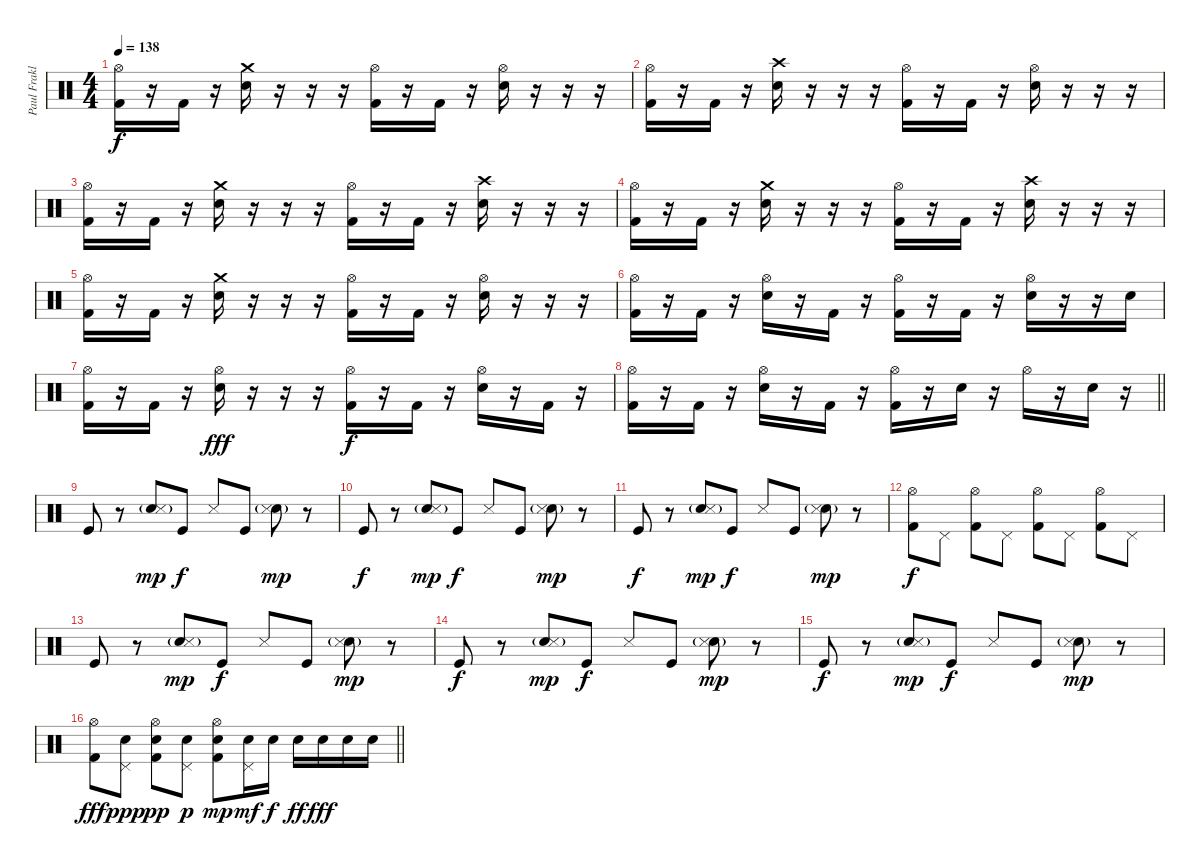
\track ("Paul Fraklin Percusion" "Paul Frakl") {instrument percussion}
\staff {score}
\articulation defaults
\ts (4 4)
\tempo 138
\clef neutral
\ks c
("Hi-Hat (open)" "Kick (hit) 2").16{dy f} r.16 "Kick (hit) 2".16 r.16 ("Crash medium (hit)" "Electric Snare (hit)").16 r.16 r.16 r.16 ("Hi-Hat (open)" "Kick (hit) 2").16 r.16 "Kick (hit) 2".16 r.16 ("Hi-Hat (open)" "Electric Snare (hit)").16 r.16 r.16 r.16 |
("Hi-Hat (open)" "Kick (hit) 2").16 r.16 "Kick (hit) 2".16 r.16 ("Crash high (hit)" "Electric Snare (hit)").16 r.16 r.16 r.16 ("Hi-Hat (open)" "Kick (hit) 2").16 r.16 "Kick (hit) 2".16 r.16 ("Hi-Hat (open)" "Electric Snare (hit)").16 r.16 r.16 r.16 |
("Hi-Hat (open)" "Kick (hit) 2").16 r.16 "Kick (hit) 2".16 r.16 ("Crash medium (hit)" "Electric Snare (hit)").16 r.16 r.16 r.16 ("Hi-Hat (open)" "Kick (hit) 2").16 r.16 "Kick (hit) 2".16 r.16 ("Crash high (hit)" "Electric Snare (hit)").16 r.16 r.16 r.16 |
("Hi-Hat (open)" "Kick (hit) 2").16 r.16 "Kick (hit) 2".16 r.16 ("Crash medium (hit)" "Electric Snare (hit)").16 r.16 r.16 r.16 ("Hi-Hat (open)" "Kick (hit) 2").16 r.16 "Kick (hit) 2".16 r.16 ("Crash high (hit)" "Electric Snare (hit)").16 r.16 r.16 r.16 |
("Hi-Hat (open)" "Kick (hit) 2").16 r.16 "Kick (hit) 2".16 r.16 ("Crash medium (hit)" "Electric Snare (hit)").16 r.16 r.16 r.16 ("Hi-Hat (open)" "Kick (hit) 2").16 r.16 "Kick (hit) 2".16 r.16 ("Hi-Hat (open)" "Electric Snare (hit)").16 r.16 r.16 r.16 |
("Hi-Hat (open)" "Kick (hit) 2").16 r.16 "Kick (hit) 2".16 r.16 ("Hi-Hat (open)" "Electric Snare (hit)").16 r.16 "Kick (hit) 2".16 r.16 ("Hi-Hat (open)" "Kick (hit) 2").16 r.16 "Kick (hit) 2".16 r.16 ("Hi-Hat (open)" "Electric Snare (hit)").16 r.16 r.16 "Electric Snare (hit)".16 |
("Hi-Hat (open)" "Kick (hit) 2").16 r.16 "Kick (hit) 2".16 r.16 ("Hi-Hat (open)" "Electric Snare (hit)").16{dy fff} r.16 r.16 r.16 ("Hi-Hat (open)" "Kick (hit) 2").16{dy f} r.16 "Kick (hit) 2".16 r.16 ("Hi-Hat (open)" "Electric Snare (hit)").16 r.16 "Kick (hit) 2".16 r.16 |
\barLineRight lightlight
("Hi-Hat (open)" "Kick (hit) 2").16 r.16 "Kick (hit) 2".16 r.16 ("Hi-Hat (open)" "Electric Snare (hit)").16 r.16 "Kick (hit) 2".16 r.16 ("Hi-Hat (open)" "Kick (hit) 2").16 r.16 "Electric Snare (hit)".16 r.16 "Hi-Hat (open)".16 r.16 "Electric Snare (hit)".16 r.16 |
"Kick (hit)".8 r.8 ("Electric Snare (hit)"{g} "Snare (side stick) 3").8{dy mp} "Kick (hit)".8{dy f} "Snare (side stick) 3".8 "Kick (hit)".8 ("Electric Snare (hit)"{g} "Snare (side stick) 3").8{dy mp} r.8 |
"Kick (hit)".8{dy f} r.8 ("Electric Snare (hit)"{g} "Snare (side stick) 3").8{dy mp} "Kick (hit)".8{dy f} "Snare (side stick) 3".8 "Kick (hit)".8 ("Electric Snare (hit)"{g} "Snare (side stick) 3").8{dy mp} r.8 |
"Kick (hit)".8{dy f} r.8 ("Electric Snare (hit)"{g} "Snare (side stick) 3").8{dy mp} "Kick (hit)".8{dy f} "Snare (side stick) 3".8 "Kick (hit)".8 ("Electric Snare (hit)"{g} "Snare (side stick) 3").8{dy mp} r.8 |
("Hi-Hat (open)" "Kick (hit) 2").8{dy f} "Pedal Hi-Hat (hit)".8 ("Hi-Hat (open)" "Kick (hit) 2").8 "Pedal Hi-Hat (hit)".8 ("Hi-Hat (open)" "Kick (hit) 2").8 "Pedal Hi-Hat (hit)".8 ("Hi-Hat (open)" "Kick (hit) 2").8 "Pedal Hi-Hat (hit)".8 |
"Kick (hit)".8 r.8 ("Electric Snare (hit)"{g} "Snare (side stick) 3").8{dy mp} "Kick (hit)".8{dy f} "Snare (side stick) 3".8 "Kick (hit)".8 ("Electric Snare (hit)"{g} "Snare (side stick) 3").8{dy mp} r.8 |
"Kick (hit)".8{dy f} r.8 ("Electric Snare (hit)"{g} "Snare (side stick) 3").8{dy mp} "Kick (hit)".8{dy f} "Snare (side stick) 3".8 "Kick (hit)".8 ("Electric Snare (hit)"{g} "Snare (side stick) 3").8{dy mp} r.8 |
"Kick (hit)".8{dy f} r.8 ("Electric Snare (hit)"{g} "Snare (side stick) 3").8{dy mp} "Kick (hit)".8{dy f} "Snare (side stick) 3".8 "Kick (hit)".8 ("Electric Snare (hit)"{g} "Snare (side stick) 3").8{dy mp} r.8 |
\barLineRight lightlight
("Hi-Hat (open)" "Kick (hit) 2").8{dy fff} ("Electric Snare (hit)" "Pedal Hi-Hat (hit)").8{dy ppp} ("Hi-Hat (open)" "Electric Snare (hit)" "Kick (hit) 2").8{dy pp} ("Electric Snare (hit)" "Pedal Hi-Hat (hit)").8{dy p} ("Hi-Hat (open)" "Electric Snare (hit)" "Kick (hit) 2").8{dy mp} ("Electric Snare (hit)" "Pedal Hi-Hat (hit)").16{dy mf} "Electric Snare (hit)".16{dy f} "Electric Snare (hit)".16{dy ff} "Electric Snare (hit)".16{dy fff} "Electric Snare (hit)".16 "Electric Snare (hit)".16
